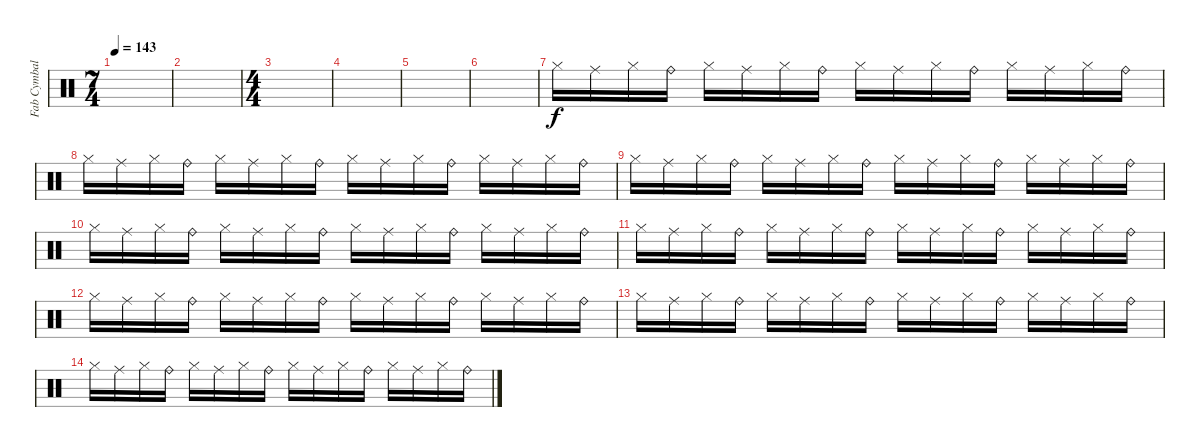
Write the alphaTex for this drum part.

\track ("Fab Cymbals (Solo)" "Fab Cymbal") {instrument percussion}
\staff {score}
\articulation defaults
\ts (7 4)
\tempo 143
\clef neutral
\ks c
|
|
\ts (4 4)
|
|
|
|
"Hi-Hat (closed)".16 "Ride (middle)".16 "Hi-Hat (closed)".16 "Ride (bell)".16 "Hi-Hat (closed)".16 "Ride (middle)".16 "Hi-Hat (closed)".16 "Ride (bell)".16 "Hi-Hat (closed)".16 "Ride (middle)".16 "Hi-Hat (closed)".16 "Ride (bell)".16 "Hi-Hat (closed)".16 "Ride (middle)".16 "Hi-Hat (closed)".16 "Ride (bell)".16 |
"Hi-Hat (closed)".16 "Ride (middle)".16 "Hi-Hat (closed)".16 "Ride (bell)".16 "Hi-Hat (closed)".16 "Ride (middle)".16 "Hi-Hat (closed)".16 "Ride (bell)".16 "Hi-Hat (closed)".16 "Ride (middle)".16 "Hi-Hat (closed)".16 "Ride (bell)".16 "Hi-Hat (closed)".16 "Ride (middle)".16 "Hi-Hat (closed)".16 "Ride (bell)".16 |
"Hi-Hat (closed)".16 "Ride (middle)".16 "Hi-Hat (closed)".16 "Ride (bell)".16 "Hi-Hat (closed)".16 "Ride (middle)".16 "Hi-Hat (closed)".16 "Ride (bell)".16 "Hi-Hat (closed)".16 "Ride (middle)".16 "Hi-Hat (closed)".16 "Ride (bell)".16 "Hi-Hat (closed)".16 "Ride (middle)".16 "Hi-Hat (closed)".16 "Ride (bell)".16 |
"Hi-Hat (closed)".16 "Ride (middle)".16 "Hi-Hat (closed)".16 "Ride (bell)".16 "Hi-Hat (closed)".16 "Ride (middle)".16 "Hi-Hat (closed)".16 "Ride (bell)".16 "Hi-Hat (closed)".16 "Ride (middle)".16 "Hi-Hat (closed)".16 "Ride (bell)".16 "Hi-Hat (closed)".16 "Ride (middle)".16 "Hi-Hat (closed)".16 "Ride (bell)".16 |
"Hi-Hat (closed)".16 "Ride (middle)".16 "Hi-Hat (closed)".16 "Ride (bell)".16 "Hi-Hat (closed)".16 "Ride (middle)".16 "Hi-Hat (closed)".16 "Ride (bell)".16 "Hi-Hat (closed)".16 "Ride (middle)".16 "Hi-Hat (closed)".16 "Ride (bell)".16 "Hi-Hat (closed)".16 "Ride (middle)".16 "Hi-Hat (closed)".16 "Ride (bell)".16 |
"Hi-Hat (closed)".16 "Ride (middle)".16 "Hi-Hat (closed)".16 "Ride (bell)".16 "Hi-Hat (closed)".16 "Ride (middle)".16 "Hi-Hat (closed)".16 "Ride (bell)".16 "Hi-Hat (closed)".16 "Ride (middle)".16 "Hi-Hat (closed)".16 "Ride (bell)".16 "Hi-Hat (closed)".16 "Ride (middle)".16 "Hi-Hat (closed)".16 "Ride (bell)".16 |
"Hi-Hat (closed)".16 "Ride (middle)".16 "Hi-Hat (closed)".16 "Ride (bell)".16 "Hi-Hat (closed)".16 "Ride (middle)".16 "Hi-Hat (closed)".16 "Ride (bell)".16 "Hi-Hat (closed)".16 "Ride (middle)".16 "Hi-Hat (closed)".16 "Ride (bell)".16 "Hi-Hat (closed)".16 "Ride (middle)".16 "Hi-Hat (closed)".16 "Ride (bell)".16 |
"Hi-Hat (closed)".16 "Ride (middle)".16 "Hi-Hat (closed)".16 "Ride (bell)".16 "Hi-Hat (closed)".16 "Ride (middle)".16 "Hi-Hat (closed)".16 "Ride (bell)".16 "Hi-Hat (closed)".16 "Ride (middle)".16 "Hi-Hat (closed)".16 "Ride (bell)".16 "Hi-Hat (closed)".16 "Ride (middle)".16 "Hi-Hat (closed)".16 "Ride (bell)".16
